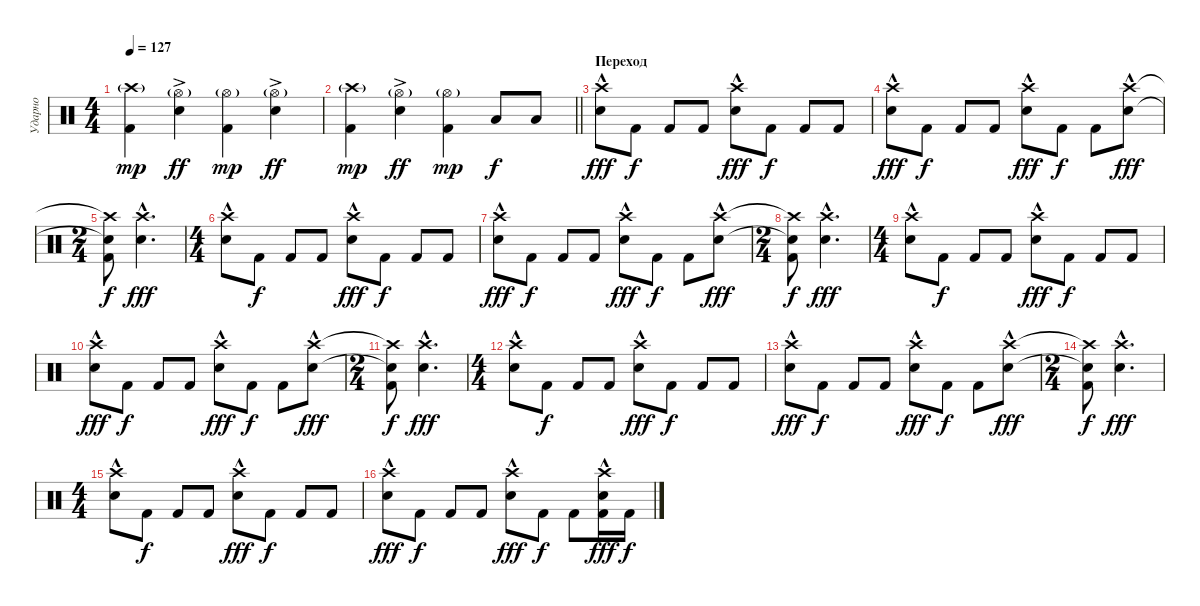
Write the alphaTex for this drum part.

\track ("Ударно" "Ударно") {instrument percussion}
\staff {score}
\articulation defaults
\ts (4 4)
\tempo 127
\clef neutral
\ks c
("Crash high (hit)"{g} "Kick (hit) 2").4{dy mp} ("Hi-Hat (open)"{g} "Electric Snare (hit)"{ac}).4{dy ff} ("Hi-Hat (open)"{g} "Kick (hit) 2").4{dy mp} ("Hi-Hat (open)"{g} "Electric Snare (hit)"{ac}).4{dy ff} |
\barLineRight lightlight
("Crash high (hit)"{g} "Kick (hit) 2").4{dy mp} ("Hi-Hat (open)"{g} "Electric Snare (hit)"{ac}).4{dy ff} ("Hi-Hat (open)"{g} "Kick (hit) 2").4{dy mp} "Low Tom (hit)".8{dy f} "Low Tom (hit)".8 |
\section ("" "Переход")
("Crash high (hit)" "Electric Snare (hit)"{hac}).8{dy fff} "Kick (hit) 2".8{dy f} "Kick (hit) 2".8 "Kick (hit) 2".8 ("Crash high (hit)" "Electric Snare (hit)"{hac}).8{dy fff} "Kick (hit) 2".8{dy f} "Kick (hit) 2".8 "Kick (hit) 2".8 |
("Crash high (hit)" "Electric Snare (hit)"{hac}).8{dy fff} "Kick (hit) 2".8{dy f} "Kick (hit) 2".8 "Kick (hit) 2".8 ("Crash high (hit)" "Electric Snare (hit)"{hac}).8{dy fff} "Kick (hit) 2".8{dy f} "Kick (hit) 2".8 ("Crash high (hit)" "Electric Snare (hit)"{hac}).8{dy fff} |
\ts (2 4)
("Crash high (hit)"{t} "Electric Snare (hit)"{t} "Kick (hit) 2").8{dy f} ("Crash high (hit)" "Electric Snare (hit)"{hac}).4{d dy fff} |
\ts (4 4)
("Crash high (hit)" "Electric Snare (hit)"{hac}).8 "Kick (hit) 2".8{dy f} "Kick (hit) 2".8 "Kick (hit) 2".8 ("Crash high (hit)" "Electric Snare (hit)"{hac}).8{dy fff} "Kick (hit) 2".8{dy f} "Kick (hit) 2".8 "Kick (hit) 2".8 |
("Crash high (hit)" "Electric Snare (hit)"{hac}).8{dy fff} "Kick (hit) 2".8{dy f} "Kick (hit) 2".8 "Kick (hit) 2".8 ("Crash high (hit)" "Electric Snare (hit)"{hac}).8{dy fff} "Kick (hit) 2".8{dy f} "Kick (hit) 2".8 ("Crash high (hit)" "Electric Snare (hit)"{hac}).8{dy fff} |
\ts (2 4)
("Crash high (hit)"{t} "Electric Snare (hit)"{t} "Kick (hit) 2").8{dy f} ("Crash high (hit)" "Electric Snare (hit)"{hac}).4{d dy fff} |
\ts (4 4)
("Crash high (hit)" "Electric Snare (hit)"{hac}).8 "Kick (hit) 2".8{dy f} "Kick (hit) 2".8 "Kick (hit) 2".8 ("Crash high (hit)" "Electric Snare (hit)"{hac}).8{dy fff} "Kick (hit) 2".8{dy f} "Kick (hit) 2".8 "Kick (hit) 2".8 |
("Crash high (hit)" "Electric Snare (hit)"{hac}).8{dy fff} "Kick (hit) 2".8{dy f} "Kick (hit) 2".8 "Kick (hit) 2".8 ("Crash high (hit)" "Electric Snare (hit)"{hac}).8{dy fff} "Kick (hit) 2".8{dy f} "Kick (hit) 2".8 ("Crash high (hit)" "Electric Snare (hit)"{hac}).8{dy fff} |
\ts (2 4)
("Crash high (hit)"{t} "Electric Snare (hit)"{t} "Kick (hit) 2").8{dy f} ("Crash high (hit)" "Electric Snare (hit)"{hac}).4{d dy fff} |
\ts (4 4)
("Crash high (hit)" "Electric Snare (hit)"{hac}).8 "Kick (hit) 2".8{dy f} "Kick (hit) 2".8 "Kick (hit) 2".8 ("Crash high (hit)" "Electric Snare (hit)"{hac}).8{dy fff} "Kick (hit) 2".8{dy f} "Kick (hit) 2".8 "Kick (hit) 2".8 |
("Crash high (hit)" "Electric Snare (hit)"{hac}).8{dy fff} "Kick (hit) 2".8{dy f} "Kick (hit) 2".8 "Kick (hit) 2".8 ("Crash high (hit)" "Electric Snare (hit)"{hac}).8{dy fff} "Kick (hit) 2".8{dy f} "Kick (hit) 2".8 ("Crash high (hit)" "Electric Snare (hit)"{hac}).8{dy fff} |
\ts (2 4)
("Crash high (hit)"{t} "Electric Snare (hit)"{t} "Kick (hit) 2").8{dy f} ("Crash high (hit)" "Electric Snare (hit)"{hac}).4{d dy fff} |
\ts (4 4)
("Crash high (hit)" "Electric Snare (hit)"{hac}).8 "Kick (hit) 2".8{dy f} "Kick (hit) 2".8 "Kick (hit) 2".8 ("Crash high (hit)" "Electric Snare (hit)"{hac}).8{dy fff} "Kick (hit) 2".8{dy f} "Kick (hit) 2".8 "Kick (hit) 2".8 |
("Crash high (hit)" "Electric Snare (hit)"{hac}).8{dy fff} "Kick (hit) 2".8{dy f} "Kick (hit) 2".8 "Kick (hit) 2".8 ("Crash high (hit)" "Electric Snare (hit)"{hac}).8{dy fff} "Kick (hit) 2".8{dy f} "Kick (hit) 2".8 ("Crash high (hit)" "Electric Snare (hit)"{hac} "Kick (hit) 2").16{dy fff} "Kick (hit) 2".16{dy f}
